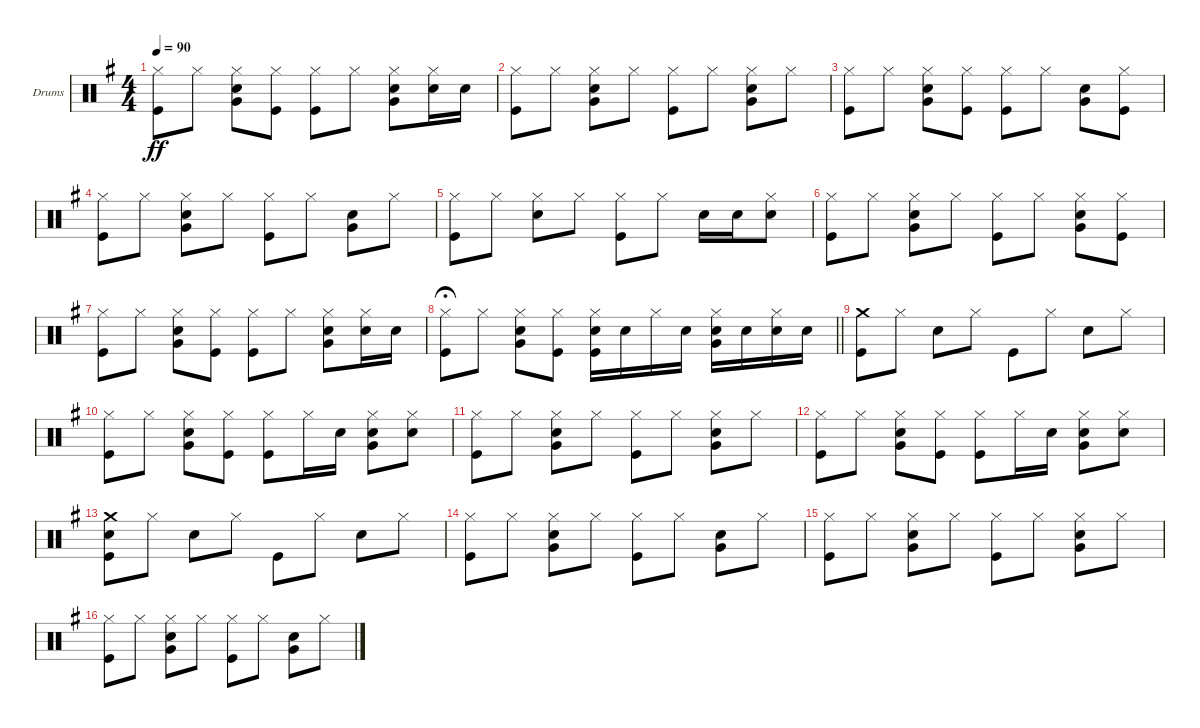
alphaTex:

\defaultSystemsLayout 4
\bracketExtendMode groupsimilarinstruments
\firstSystemTrackNameOrientation horizontal
\otherSystemsTrackNameOrientation horizontal
\track ("Drumkit" "Drums") {instrument percussion}
\staff {score}
\articulation defaults
\ts (4 4)
\tempo 90
\clef neutral
\ks g
("Kick (hit)" "Hi-Hat (closed)").8{dy ff} "Hi-Hat (closed)".8 ("Snare (hit) 2" "Hi-Hat (closed)" "Very Low Tom (hit)").8 ("Kick (hit)" "Hi-Hat (closed)").8 ("Kick (hit)" "Hi-Hat (closed)").8 "Hi-Hat (closed)".8 ("Snare (hit) 2" "Hi-Hat (closed)" "Very Low Tom (hit)").8 ("Snare (hit) 2" "Hi-Hat (closed)").16 "Snare (hit) 2".16 |
("Kick (hit)" "Hi-Hat (closed)").8 "Hi-Hat (closed)".8 ("Snare (hit) 2" "Hi-Hat (closed)" "Very Low Tom (hit)").8 "Hi-Hat (closed)".8 ("Kick (hit)" "Hi-Hat (closed)").8 "Hi-Hat (closed)".8 ("Snare (hit) 2" "Hi-Hat (closed)" "Very Low Tom (hit)").8 "Hi-Hat (closed)".8 |
("Kick (hit)" "Hi-Hat (closed)").8 "Hi-Hat (closed)".8 ("Snare (hit) 2" "Hi-Hat (closed)" "Very Low Tom (hit)").8 ("Kick (hit)" "Hi-Hat (closed)").8 ("Kick (hit)" "Hi-Hat (closed)").8 "Hi-Hat (closed)".8 ("Snare (hit) 2" "Very Low Tom (hit)").8 ("Kick (hit)" "Hi-Hat (closed)").8 |
("Kick (hit)" "Hi-Hat (closed)").8 "Hi-Hat (closed)".8 ("Snare (hit) 2" "Hi-Hat (closed)" "Very Low Tom (hit)").8 "Hi-Hat (closed)".8 ("Kick (hit)" "Hi-Hat (closed)").8 "Hi-Hat (closed)".8 ("Snare (hit) 2" "Very Low Tom (hit)").8 "Hi-Hat (closed)".8 |
("Kick (hit)" "Hi-Hat (closed)").8 "Hi-Hat (closed)".8 ("Snare (hit) 2" "Hi-Hat (closed)").8 "Hi-Hat (closed)".8 ("Kick (hit)" "Hi-Hat (closed)").8 "Hi-Hat (closed)".8 "Snare (hit) 2".16 "Snare (hit) 2".16 ("Snare (hit) 2" "Hi-Hat (closed)").8 |
("Kick (hit)" "Hi-Hat (closed)").8 "Hi-Hat (closed)".8 ("Snare (hit) 2" "Hi-Hat (closed)" "Very Low Tom (hit)").8 "Hi-Hat (closed)".8 ("Kick (hit)" "Hi-Hat (closed)").8 "Hi-Hat (closed)".8 ("Snare (hit) 2" "Hi-Hat (closed)" "Very Low Tom (hit)").8 ("Kick (hit)" "Hi-Hat (closed)").8 |
("Kick (hit)" "Hi-Hat (closed)").8 "Hi-Hat (closed)".8 ("Snare (hit) 2" "Hi-Hat (closed)" "Very Low Tom (hit)").8 ("Kick (hit)" "Hi-Hat (closed)").8 ("Kick (hit)" "Hi-Hat (closed)").8 "Hi-Hat (closed)".8 ("Snare (hit) 2" "Hi-Hat (closed)" "Very Low Tom (hit)").8 ("Snare (hit) 2" "Hi-Hat (closed)").16 "Snare (hit) 2".16 |
\barLineRight lightlight
("Kick (hit)" "Hi-Hat (closed)").8{fermata (medium 0.5)} "Hi-Hat (closed)".8 ("Snare (hit) 2" "Hi-Hat (closed)" "Very Low Tom (hit)").8 ("Kick (hit)" "Hi-Hat (closed)").8 ("Kick (hit)" "Snare (hit) 2" "Hi-Hat (closed)").16 "Snare (hit) 2".16 "Hi-Hat (closed)".16 "Snare (hit) 2".16 ("Snare (hit) 2" "Hi-Hat (closed)" "Very Low Tom (hit)").16 "Snare (hit) 2".16 ("Snare (hit) 2" "Hi-Hat (closed)").16 "Snare (hit) 2".16 |
("Kick (hit)" "Crash medium (hit)").8 "Hi-Hat (closed)".8 "Snare (hit) 2".8 "Hi-Hat (closed)".8 "Kick (hit)".8 "Hi-Hat (closed)".8 "Snare (hit) 2".8 "Hi-Hat (closed)".8 |
("Kick (hit)" "Hi-Hat (closed)").8 "Hi-Hat (closed)".8 ("Snare (hit) 2" "Hi-Hat (closed)" "Very Low Tom (hit)").8 ("Kick (hit)" "Hi-Hat (closed)").8 ("Kick (hit)" "Hi-Hat (closed)").8 "Hi-Hat (closed)".16 "Snare (hit) 2".16 ("Snare (hit) 2" "Hi-Hat (closed)" "Very Low Tom (hit)").8 ("Snare (hit) 2" "Hi-Hat (closed)").8 |
("Kick (hit)" "Hi-Hat (closed)").8 "Hi-Hat (closed)".8 ("Snare (hit) 2" "Hi-Hat (closed)" "Very Low Tom (hit)").8 "Hi-Hat (closed)".8 ("Kick (hit)" "Hi-Hat (closed)").8 "Hi-Hat (closed)".8 ("Snare (hit) 2" "Hi-Hat (closed)" "Very Low Tom (hit)").8 "Hi-Hat (closed)".8 |
("Kick (hit)" "Hi-Hat (closed)").8 "Hi-Hat (closed)".8 ("Snare (hit) 2" "Hi-Hat (closed)" "Very Low Tom (hit)").8 ("Kick (hit)" "Hi-Hat (closed)").8 ("Kick (hit)" "Hi-Hat (closed)").8 "Hi-Hat (closed)".16 "Snare (hit) 2".16 ("Snare (hit) 2" "Hi-Hat (closed)" "Very Low Tom (hit)").8 ("Snare (hit) 2" "Hi-Hat (closed)").8 |
("Kick (hit)" "Snare (hit) 2" "Crash medium (hit)").8 "Hi-Hat (closed)".8 "Snare (hit) 2".8 "Hi-Hat (closed)".8 "Kick (hit)".8 "Hi-Hat (closed)".8 "Snare (hit) 2".8 "Hi-Hat (closed)".8 |
("Kick (hit)" "Hi-Hat (closed)").8 "Hi-Hat (closed)".8 ("Snare (hit) 2" "Hi-Hat (closed)" "Very Low Tom (hit)").8 "Hi-Hat (closed)".8 ("Kick (hit)" "Hi-Hat (closed)").8 "Hi-Hat (closed)".8 ("Snare (hit) 2" "Very Low Tom (hit)").8 "Hi-Hat (closed)".8 |
("Kick (hit)" "Hi-Hat (closed)").8 "Hi-Hat (closed)".8 ("Snare (hit) 2" "Hi-Hat (closed)" "Very Low Tom (hit)").8 "Hi-Hat (closed)".8 ("Kick (hit)" "Hi-Hat (closed)").8 "Hi-Hat (closed)".8 ("Snare (hit) 2" "Hi-Hat (closed)" "Very Low Tom (hit)").8 "Hi-Hat (closed)".8 |
("Kick (hit)" "Hi-Hat (closed)").8 "Hi-Hat (closed)".8 ("Snare (hit) 2" "Hi-Hat (closed)" "Very Low Tom (hit)").8 "Hi-Hat (closed)".8 ("Kick (hit)" "Hi-Hat (closed)").8 "Hi-Hat (closed)".8 ("Snare (hit) 2" "Very Low Tom (hit)").8 "Hi-Hat (closed)".8
